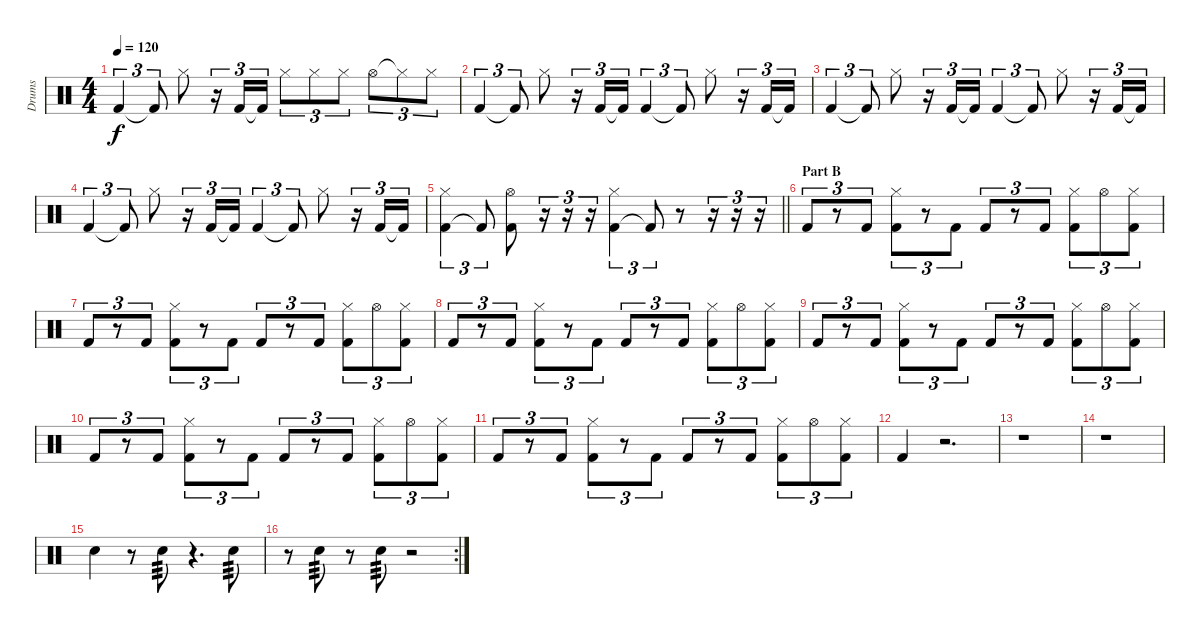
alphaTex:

\track ("Drums" "Drums") {instrument percussion}
\staff {score}
\articulation defaults
\ts (4 4)
\tempo 120
\clef neutral
\ks c "Kick (hit) 2".4{tu (3 2) dy f} "Kick (hit) 2"{t}.8{tu (3 2)} "Hi-Hat (closed)".8
r.16{tu (3 2)} "Kick (hit) 2".16{tu (3 2)} "Kick (hit) 2"{t}.16{tu (3 2)} "Hi-Hat (closed)".8{tu (3 2)} "Hi-Hat (closed)".8{tu (3 2)} "Hi-Hat (closed)".8{tu (3 2)} "Hi-Hat (open)".8{tu (3 2)} "Hi-Hat (closed)"{t}.8{tu (3 2)} "Hi-Hat (closed)".8{tu (3 2)} |
"Kick (hit) 2".4{tu (3 2)} "Kick (hit) 2"{t}.8{tu (3 2)} "Hi-Hat (closed)".8 r.16{tu (3 2)} "Kick (hit) 2".16{tu (3 2)} "Kick (hit) 2"{t}.16{tu (3 2)} "Kick (hit) 2".4{tu (3 2)} "Kick (hit) 2"{t}.8{tu (3 2)} "Hi-Hat (closed)".8 r.16{tu (3 2)} "Kick (hit) 2".16{tu (3 2)} "Kick (hit) 2"{t}.16{tu (3 2)} |
"Kick (hit) 2".4{tu (3 2)} "Kick (hit) 2"{t}.8{tu (3 2)} "Hi-Hat (closed)".8 r.16{tu (3 2)} "Kick (hit) 2".16{tu (3 2)} "Kick (hit) 2"{t}.16{tu (3 2)} "Kick (hit) 2".4{tu (3 2)} "Kick (hit) 2"{t}.8{tu (3 2)} "Hi-Hat (closed)".8 r.16{tu (3 2)} "Kick (hit) 2".16{tu (3 2)} "Kick (hit) 2"{t}.16{tu (3 2)} |
"Kick (hit) 2".4{tu (3 2)} "Kick (hit) 2"{t}.8{tu (3 2)} "Hi-Hat (closed)".8 r.16{tu (3 2)} "Kick (hit) 2".16{tu (3 2)} "Kick (hit) 2"{t}.16{tu (3 2)} "Kick (hit) 2".4{tu (3 2)} "Kick (hit) 2"{t}.8{tu (3 2)} "Hi-Hat (closed)".8 r.16{tu (3 2)} "Kick (hit) 2".16{tu (3 2)} "Kick (hit) 2"{t}.16{tu (3 2)} |
\barLineRight lightlight
("Kick (hit) 2" "Hi-Hat (closed)").4{tu (3 2)} "Kick (hit) 2"{t}.8{tu (3 2)} ("Kick (hit) 2" "Hi-Hat (open)").8 r.16{tu (3 2)} r.16{tu (3 2)} r.16{tu (3 2)} ("Kick (hit) 2" "Hi-Hat (closed)").4{tu (3 2)} "Kick (hit) 2"{t}.8{tu (3 2)} r.8 r.16{tu (3 2)} r.16{tu (3 2)} r.16{tu (3 2)} |
\section ("" "Part B")
"Kick (hit) 2".8{tu (3 2)} r.8{tu (3 2)} "Kick (hit) 2".8{tu (3 2)} ("Kick (hit) 2" "Hi-Hat (closed)").8{tu (3 2)} r.8{tu (3 2)} "Kick (hit) 2".8{tu (3 2)} "Kick (hit) 2".8{tu (3 2)} r.8{tu (3 2)} "Kick (hit) 2".8{tu (3 2)} ("Kick (hit) 2" "Hi-Hat (closed)").8{tu (3 2)} "Hi-Hat (open)".8{tu (3 2)} ("Kick (hit) 2" "Hi-Hat (closed)").8{tu (3 2)} |
"Kick (hit) 2".8{tu (3 2)} r.8{tu (3 2)} "Kick (hit) 2".8{tu (3 2)} ("Kick (hit) 2" "Hi-Hat (closed)").8{tu (3 2)} r.8{tu (3 2)} "Kick (hit) 2".8{tu (3 2)} "Kick (hit) 2".8{tu (3 2)} r.8{tu (3 2)} "Kick (hit) 2".8{tu (3 2)} ("Kick (hit) 2" "Hi-Hat (closed)").8{tu (3 2)} "Hi-Hat (open)".8{tu (3 2)} ("Kick (hit) 2" "Hi-Hat (closed)").8{tu (3 2)} |
"Kick (hit) 2".8{tu (3 2)} r.8{tu (3 2)} "Kick (hit) 2".8{tu (3 2)} ("Kick (hit) 2" "Hi-Hat (closed)").8{tu (3 2)} r.8{tu (3 2)} "Kick (hit) 2".8{tu (3 2)} "Kick (hit) 2".8{tu (3 2)} r.8{tu (3 2)} "Kick (hit) 2".8{tu (3 2)} ("Kick (hit) 2" "Hi-Hat (closed)").8{tu (3 2)} "Hi-Hat (open)".8{tu (3 2)} ("Kick (hit) 2" "Hi-Hat (closed)").8{tu (3 2)} |
"Kick (hit) 2".8{tu (3 2)} r.8{tu (3 2)} "Kick (hit) 2".8{tu (3 2)} ("Kick (hit) 2" "Hi-Hat (closed)").8{tu (3 2)} r.8{tu (3 2)} "Kick (hit) 2".8{tu (3 2)} "Kick (hit) 2".8{tu (3 2)} r.8{tu (3 2)} "Kick (hit) 2".8{tu (3 2)} ("Kick (hit) 2" "Hi-Hat (closed)").8{tu (3 2)} "Hi-Hat (open)".8{tu (3 2)} ("Kick (hit) 2" "Hi-Hat (closed)").8{tu (3 2)} |
"Kick (hit) 2".8{tu (3 2)} r.8{tu (3 2)} "Kick (hit) 2".8{tu (3 2)} ("Kick (hit) 2" "Hi-Hat (closed)").8{tu (3 2)} r.8{tu (3 2)} "Kick (hit) 2".8{tu (3 2)} "Kick (hit) 2".8{tu (3 2)} r.8{tu (3 2)} "Kick (hit) 2".8{tu (3 2)} ("Kick (hit) 2" "Hi-Hat (closed)").8{tu (3 2)} "Hi-Hat (open)".8{tu (3 2)} ("Kick (hit) 2" "Hi-Hat (closed)").8{tu (3 2)} |
"Kick (hit) 2".8{tu (3 2)} r.8{tu (3 2)} "Kick (hit) 2".8{tu (3 2)} ("Kick (hit) 2" "Hi-Hat (closed)").8{tu (3 2)} r.8{tu (3 2)} "Kick (hit) 2".8{tu (3 2)} "Kick (hit) 2".8{tu (3 2)} r.8{tu (3 2)} "Kick (hit) 2".8{tu (3 2)} ("Kick (hit) 2" "Hi-Hat (closed)").8{tu (3 2)} "Hi-Hat (open)".8{tu (3 2)} ("Kick (hit) 2" "Hi-Hat (closed)").8{tu (3 2)} |
"Kick (hit) 2".4 r.2{d} |
r.1 |
r.1 |
"Electric Snare (hit)".4 r.8 "Electric Snare (hit)".8{tp 3} r.4{d} "Electric Snare (hit)".8{tp 3} |
\rc 2
r.8 "Electric Snare (hit)".8{tp 3} r.8 "Electric Snare (hit)".8{tp 3} r.2
